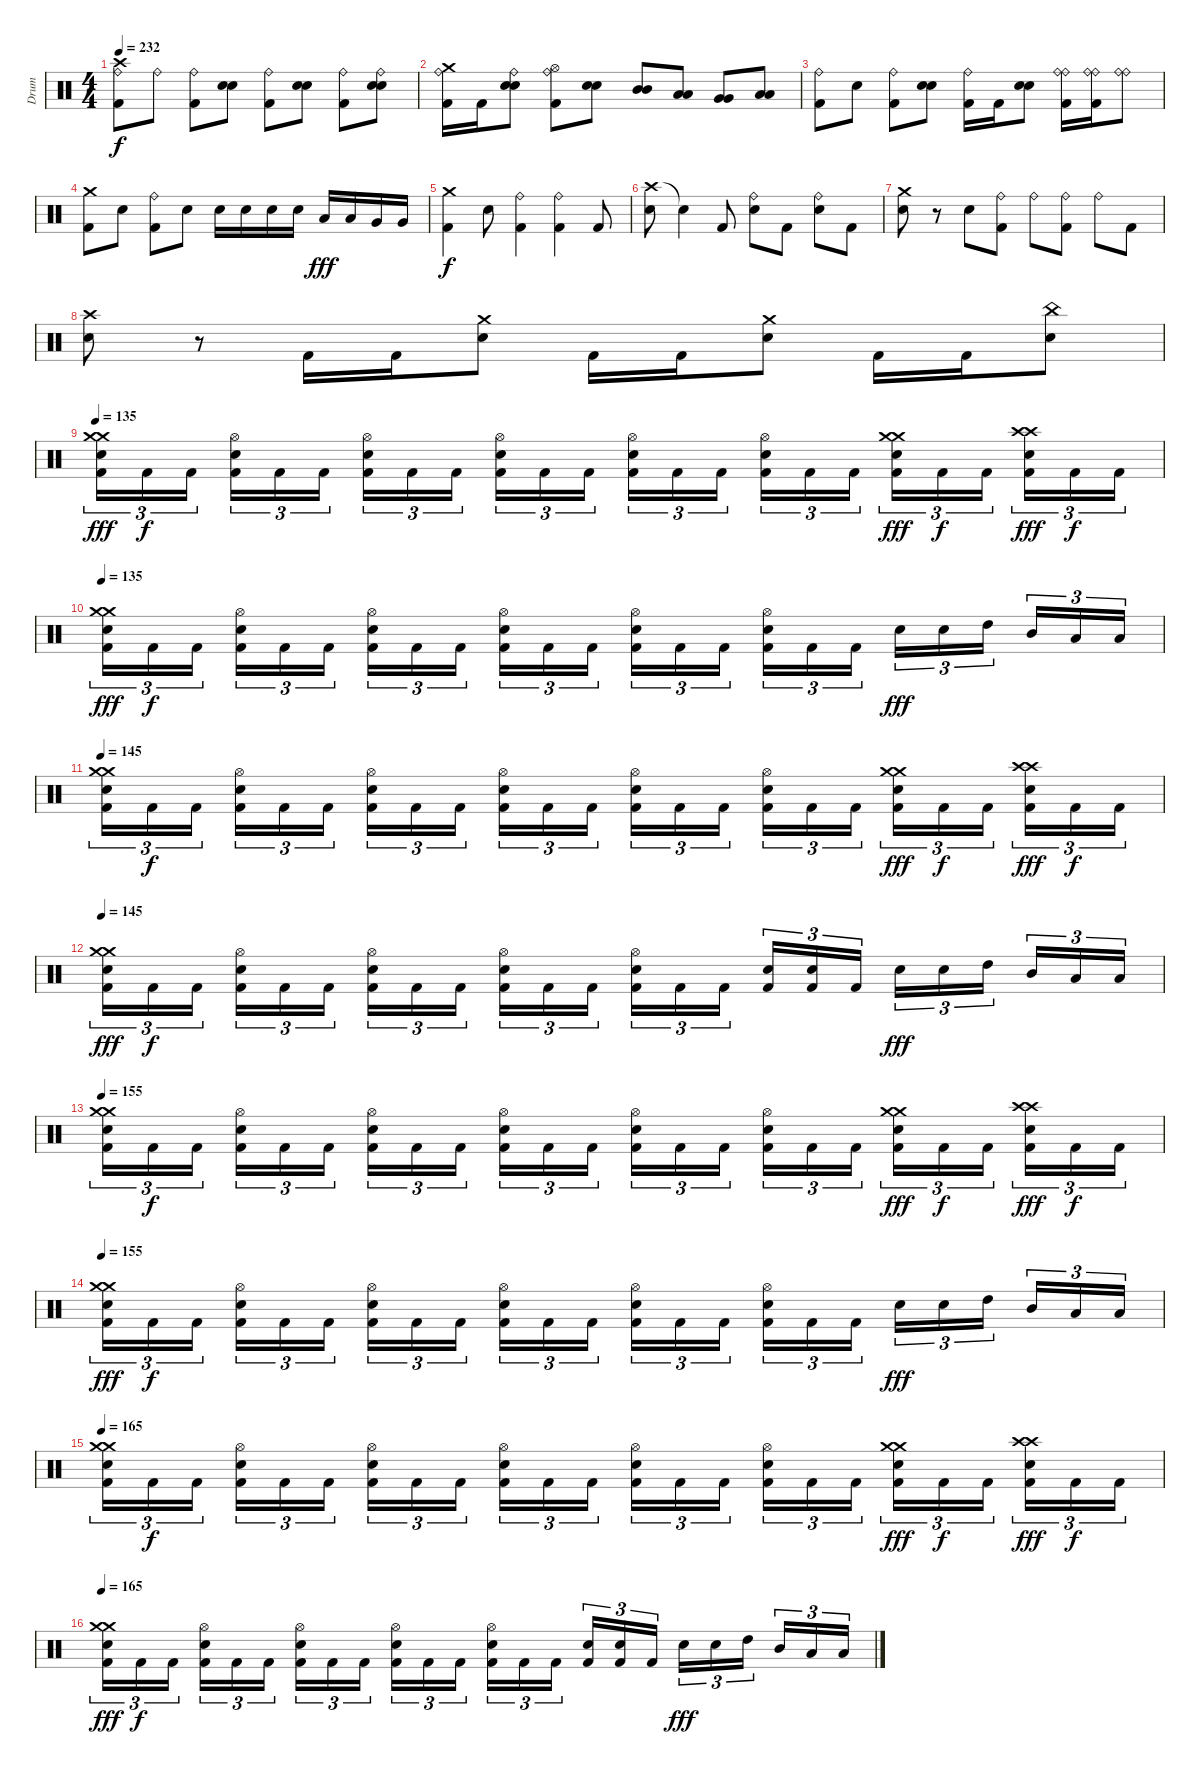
\track ("Drum" "Drum") {instrument percussion}
\staff {score}
\articulation defaults
\ts (4 4)
\tempo 232
\clef neutral
\ks c
("Ride (bell)" "Crash high (hit)" "Kick (hit) 2").8{dy f volume 13} "Ride (bell)".8 ("Ride (bell)" "Kick (hit) 2").8 ("Electric Snare (hit)" "Electric Snare (hit)").8 ("Ride (bell)" "Kick (hit) 2").8 ("Electric Snare (hit)" "Electric Snare (hit)").8 ("Ride (bell)" "Kick (hit) 2").8 ("Ride (bell)" "Electric Snare (hit)" "Electric Snare (hit)").8 |
("Ride (bell)" "Crash medium (hit)" "Kick (hit) 2").16 "Kick (hit) 2".16 ("Ride (bell)" "Electric Snare (hit)" "Electric Snare (hit)").8 ("Ride (bell)" "Hi-Hat (open)" "Kick (hit) 2").8 ("Electric Snare (hit)" "Electric Snare (hit)").8 ("Mid Tom (hit)" "Mid Tom (hit)").8 ("Low Tom (hit)" "Low Tom (hit)").8 ("Very Low Tom (hit)" "Very Low Tom (hit)").8 ("Low Floor Tom (hit)" "Low Floor Tom (hit)").8 |
("Ride (bell)" "Kick (hit) 2").8 "Electric Snare (hit)".8 ("Ride (bell)" "Kick (hit) 2").8 ("Electric Snare (hit)" "Electric Snare (hit)").8 ("Ride (bell)" "Kick (hit) 2").16 "Kick (hit) 2".16 ("Electric Snare (hit)" "Electric Snare (hit)").8 ("Ride (bell)" "Ride (bell)" "Kick (hit) 2").16 ("Ride (bell)" "Ride (bell)" "Kick (hit) 2").16 ("Ride (bell)" "Ride (bell)").8 |
("Crash medium (hit)" "Kick (hit) 2").8 "Electric Snare (hit)".8 ("Ride (bell)" "Kick (hit) 2").8 "Electric Snare (hit)".8 "Electric Snare (hit)".16 "Electric Snare (hit)".16 "Electric Snare (hit)".16 "Electric Snare (hit)".16 "Low Tom (hit)".16{dy fff} "Low Tom (hit)".16 "Very Low Tom (hit)".16 "Very Low Tom (hit)".16 |
("Crash medium (hit)" "Kick (hit) 2").4{dy f} "Electric Snare (hit)".8 ("Ride (bell)" "Kick (hit) 2").4 ("Ride (bell)" "Kick (hit) 2").4 "Kick (hit) 2".8 |
("Crash high (hit)" "Electric Snare (hit)").8 "Snare (hit)"{t}.4 "Kick (hit) 2".8 ("Ride (bell)" "Electric Snare (hit)").8 "Kick (hit) 2".8 ("Ride (bell)" "Electric Snare (hit)").8 "Kick (hit) 2".8 |
("Crash medium (hit)" "Electric Snare (hit)").8 r.8 "Electric Snare (hit)".8 ("Ride (bell)" "Kick (hit) 2").8 "Ride (bell)".8 ("Ride (bell)" "Kick (hit) 2").8 "Ride (bell)".8 "Kick (hit) 2".8 |
("Crash high (hit)" "Electric Snare (hit)").8 r.8 "Kick (hit) 2".16 "Kick (hit) 2".16 ("Crash medium (hit)" "Electric Snare (hit)").8 "Kick (hit) 2".16 "Kick (hit) 2".16 ("Crash medium (hit)" "Electric Snare (hit)").8 "Kick (hit) 2".16 "Kick (hit) 2".16 ("China (hit)" "Electric Snare (hit)").8 |
\tempo 135
("Crash medium (hit)" "Crash medium (hit)" "Electric Snare (hit)" "Kick (hit) 2").16{tu (3 2) dy fff} "Kick (hit) 2".16{tu (3 2) dy f} "Kick (hit) 2".16{tu (3 2)} ("Hi-Hat (open)" "Electric Snare (hit)" "Kick (hit) 2").16{tu (3 2)} "Kick (hit) 2".16{tu (3 2)} "Kick (hit) 2".16{tu (3 2)} ("Hi-Hat (open)" "Electric Snare (hit)" "Kick (hit) 2").16{tu (3 2)} "Kick (hit) 2".16{tu (3 2)} "Kick (hit) 2".16{tu (3 2)} ("Hi-Hat (open)" "Electric Snare (hit)" "Kick (hit) 2").16{tu (3 2)} "Kick (hit) 2".16{tu (3 2)} "Kick (hit) 2".16{tu (3 2)} ("Hi-Hat (open)" "Electric Snare (hit)" "Kick (hit) 2").16{tu (3 2)} "Kick (hit) 2".16{tu (3 2)} "Kick (hit) 2".16{tu (3 2)} ("Hi-Hat (open)" "Electric Snare (hit)" "Kick (hit) 2").16{tu (3 2)} "Kick (hit) 2".16{tu (3 2)} "Kick (hit) 2".16{tu (3 2)} ("Crash medium (hit)" "Crash medium (hit)" "Electric Snare (hit)" "Kick (hit) 2").16{tu (3 2) dy fff} "Kick (hit) 2".16{tu (3 2) dy f} "Kick (hit) 2".16{tu (3 2)} ("Crash high (hit)" "Crash high (hit)" "Electric Snare (hit)" "Kick (hit) 2").16{tu (3 2) dy fff} "Kick (hit) 2".16{tu (3 2) dy f} "Kick (hit) 2".16{tu (3 2)} |
\tempo 135
("Crash medium (hit)" "Crash medium (hit)" "Electric Snare (hit)" "Kick (hit) 2").16{tu (3 2) dy fff} "Kick (hit) 2".16{tu (3 2) dy f} "Kick (hit) 2".16{tu (3 2)} ("Hi-Hat (open)" "Electric Snare (hit)" "Kick (hit) 2").16{tu (3 2)} "Kick (hit) 2".16{tu (3 2)} "Kick (hit) 2".16{tu (3 2)} ("Hi-Hat (open)" "Electric Snare (hit)" "Kick (hit) 2").16{tu (3 2)} "Kick (hit) 2".16{tu (3 2)} "Kick (hit) 2".16{tu (3 2)} ("Hi-Hat (open)" "Electric Snare (hit)" "Kick (hit) 2").16{tu (3 2)} "Kick (hit) 2".16{tu (3 2)} "Kick (hit) 2".16{tu (3 2)} ("Hi-Hat (open)" "Electric Snare (hit)" "Kick (hit) 2").16{tu (3 2)} "Kick (hit) 2".16{tu (3 2)} "Kick (hit) 2".16{tu (3 2)} ("Hi-Hat (open)" "Electric Snare (hit)" "Kick (hit) 2").16{tu (3 2)} "Kick (hit) 2".16{tu (3 2)} "Kick (hit) 2".16{tu (3 2)} "Electric Snare (hit)".16{tu (3 2) dy fff} "Electric Snare (hit)".16{tu (3 2)} "High Tom (hit)".16{tu (3 2)} "Mid Tom (hit)".16{tu (3 2)} "Low Tom (hit)".16{tu (3 2)} "Low Tom (hit)".16{tu (3 2)} |
\tempo 145
("Crash medium (hit)" "Crash medium (hit)" "Electric Snare (hit)" "Kick (hit) 2").16{tu (3 2)} "Kick (hit) 2".16{tu (3 2) dy f} "Kick (hit) 2".16{tu (3 2)} ("Hi-Hat (open)" "Electric Snare (hit)" "Kick (hit) 2").16{tu (3 2)} "Kick (hit) 2".16{tu (3 2)} "Kick (hit) 2".16{tu (3 2)} ("Hi-Hat (open)" "Electric Snare (hit)" "Kick (hit) 2").16{tu (3 2)} "Kick (hit) 2".16{tu (3 2)} "Kick (hit) 2".16{tu (3 2)} ("Hi-Hat (open)" "Electric Snare (hit)" "Kick (hit) 2").16{tu (3 2)} "Kick (hit) 2".16{tu (3 2)} "Kick (hit) 2".16{tu (3 2)} ("Hi-Hat (open)" "Electric Snare (hit)" "Kick (hit) 2").16{tu (3 2)} "Kick (hit) 2".16{tu (3 2)} "Kick (hit) 2".16{tu (3 2)} ("Hi-Hat (open)" "Electric Snare (hit)" "Kick (hit) 2").16{tu (3 2)} "Kick (hit) 2".16{tu (3 2)} "Kick (hit) 2".16{tu (3 2)} ("Crash medium (hit)" "Crash medium (hit)" "Electric Snare (hit)" "Kick (hit) 2").16{tu (3 2) dy fff} "Kick (hit) 2".16{tu (3 2) dy f} "Kick (hit) 2".16{tu (3 2)} ("Crash high (hit)" "Crash high (hit)" "Electric Snare (hit)" "Kick (hit) 2").16{tu (3 2) dy fff} "Kick (hit) 2".16{tu (3 2) dy f} "Kick (hit) 2".16{tu (3 2)} |
\tempo 145
("Crash medium (hit)" "Crash medium (hit)" "Electric Snare (hit)" "Kick (hit) 2").16{tu (3 2) dy fff} "Kick (hit) 2".16{tu (3 2) dy f} "Kick (hit) 2".16{tu (3 2)} ("Hi-Hat (open)" "Electric Snare (hit)" "Kick (hit) 2").16{tu (3 2)} "Kick (hit) 2".16{tu (3 2)} "Kick (hit) 2".16{tu (3 2)} ("Hi-Hat (open)" "Electric Snare (hit)" "Kick (hit) 2").16{tu (3 2)} "Kick (hit) 2".16{tu (3 2)} "Kick (hit) 2".16{tu (3 2)} ("Hi-Hat (open)" "Electric Snare (hit)" "Kick (hit) 2").16{tu (3 2)} "Kick (hit) 2".16{tu (3 2)} "Kick (hit) 2".16{tu (3 2)} ("Hi-Hat (open)" "Electric Snare (hit)" "Kick (hit) 2").16{tu (3 2)} "Kick (hit) 2".16{tu (3 2)} "Kick (hit) 2".16{tu (3 2)} ("Electric Snare (hit)" "Kick (hit) 2").16{tu (3 2)} ("Electric Snare (hit)" "Kick (hit) 2").16{tu (3 2)} "Kick (hit) 2".16{tu (3 2)} "Electric Snare (hit)".16{tu (3 2) dy fff} "Electric Snare (hit)".16{tu (3 2)} "High Tom (hit)".16{tu (3 2)} "Mid Tom (hit)".16{tu (3 2)} "Low Tom (hit)".16{tu (3 2)} "Low Tom (hit)".16{tu (3 2)} |
\tempo 155
("Crash medium (hit)" "Crash medium (hit)" "Electric Snare (hit)" "Kick (hit) 2").16{tu (3 2)} "Kick (hit) 2".16{tu (3 2) dy f} "Kick (hit) 2".16{tu (3 2)} ("Hi-Hat (open)" "Electric Snare (hit)" "Kick (hit) 2").16{tu (3 2)} "Kick (hit) 2".16{tu (3 2)} "Kick (hit) 2".16{tu (3 2)} ("Hi-Hat (open)" "Electric Snare (hit)" "Kick (hit) 2").16{tu (3 2)} "Kick (hit) 2".16{tu (3 2)} "Kick (hit) 2".16{tu (3 2)} ("Hi-Hat (open)" "Electric Snare (hit)" "Kick (hit) 2").16{tu (3 2)} "Kick (hit) 2".16{tu (3 2)} "Kick (hit) 2".16{tu (3 2)} ("Hi-Hat (open)" "Electric Snare (hit)" "Kick (hit) 2").16{tu (3 2)} "Kick (hit) 2".16{tu (3 2)} "Kick (hit) 2".16{tu (3 2)} ("Hi-Hat (open)" "Electric Snare (hit)" "Kick (hit) 2").16{tu (3 2)} "Kick (hit) 2".16{tu (3 2)} "Kick (hit) 2".16{tu (3 2)} ("Crash medium (hit)" "Crash medium (hit)" "Electric Snare (hit)" "Kick (hit) 2").16{tu (3 2) dy fff} "Kick (hit) 2".16{tu (3 2) dy f} "Kick (hit) 2".16{tu (3 2)} ("Crash high (hit)" "Crash high (hit)" "Electric Snare (hit)" "Kick (hit) 2").16{tu (3 2) dy fff} "Kick (hit) 2".16{tu (3 2) dy f} "Kick (hit) 2".16{tu (3 2)} |
\tempo 145
\tempo 155
("Crash medium (hit)" "Crash medium (hit)" "Electric Snare (hit)" "Kick (hit) 2").16{tu (3 2) dy fff} "Kick (hit) 2".16{tu (3 2) dy f} "Kick (hit) 2".16{tu (3 2)} ("Hi-Hat (open)" "Electric Snare (hit)" "Kick (hit) 2").16{tu (3 2)} "Kick (hit) 2".16{tu (3 2)} "Kick (hit) 2".16{tu (3 2)} ("Hi-Hat (open)" "Electric Snare (hit)" "Kick (hit) 2").16{tu (3 2)} "Kick (hit) 2".16{tu (3 2)} "Kick (hit) 2".16{tu (3 2)} ("Hi-Hat (open)" "Electric Snare (hit)" "Kick (hit) 2").16{tu (3 2)} "Kick (hit) 2".16{tu (3 2)} "Kick (hit) 2".16{tu (3 2)} ("Hi-Hat (open)" "Electric Snare (hit)" "Kick (hit) 2").16{tu (3 2)} "Kick (hit) 2".16{tu (3 2)} "Kick (hit) 2".16{tu (3 2)} ("Hi-Hat (open)" "Electric Snare (hit)" "Kick (hit) 2").16{tu (3 2)} "Kick (hit) 2".16{tu (3 2)} "Kick (hit) 2".16{tu (3 2)} "Electric Snare (hit)".16{tu (3 2) dy fff} "Electric Snare (hit)".16{tu (3 2)} "High Tom (hit)".16{tu (3 2)} "Mid Tom (hit)".16{tu (3 2)} "Low Tom (hit)".16{tu (3 2)} "Low Tom (hit)".16{tu (3 2)} |
\tempo 165
("Crash medium (hit)" "Crash medium (hit)" "Electric Snare (hit)" "Kick (hit) 2").16{tu (3 2)} "Kick (hit) 2".16{tu (3 2) dy f} "Kick (hit) 2".16{tu (3 2)} ("Hi-Hat (open)" "Electric Snare (hit)" "Kick (hit) 2").16{tu (3 2)} "Kick (hit) 2".16{tu (3 2)} "Kick (hit) 2".16{tu (3 2)} ("Hi-Hat (open)" "Electric Snare (hit)" "Kick (hit) 2").16{tu (3 2)} "Kick (hit) 2".16{tu (3 2)} "Kick (hit) 2".16{tu (3 2)} ("Hi-Hat (open)" "Electric Snare (hit)" "Kick (hit) 2").16{tu (3 2)} "Kick (hit) 2".16{tu (3 2)} "Kick (hit) 2".16{tu (3 2)} ("Hi-Hat (open)" "Electric Snare (hit)" "Kick (hit) 2").16{tu (3 2)} "Kick (hit) 2".16{tu (3 2)} "Kick (hit) 2".16{tu (3 2)} ("Hi-Hat (open)" "Electric Snare (hit)" "Kick (hit) 2").16{tu (3 2)} "Kick (hit) 2".16{tu (3 2)} "Kick (hit) 2".16{tu (3 2)} ("Crash medium (hit)" "Crash medium (hit)" "Electric Snare (hit)" "Kick (hit) 2").16{tu (3 2) dy fff} "Kick (hit) 2".16{tu (3 2) dy f} "Kick (hit) 2".16{tu (3 2)} ("Crash high (hit)" "Crash high (hit)" "Electric Snare (hit)" "Kick (hit) 2").16{tu (3 2) dy fff} "Kick (hit) 2".16{tu (3 2) dy f} "Kick (hit) 2".16{tu (3 2)} |
\tempo 165
("Crash medium (hit)" "Crash medium (hit)" "Electric Snare (hit)" "Kick (hit) 2").16{tu (3 2) dy fff} "Kick (hit) 2".16{tu (3 2) dy f} "Kick (hit) 2".16{tu (3 2)} ("Hi-Hat (open)" "Electric Snare (hit)" "Kick (hit) 2").16{tu (3 2)} "Kick (hit) 2".16{tu (3 2)} "Kick (hit) 2".16{tu (3 2)} ("Hi-Hat (open)" "Electric Snare (hit)" "Kick (hit) 2").16{tu (3 2)} "Kick (hit) 2".16{tu (3 2)} "Kick (hit) 2".16{tu (3 2)} ("Hi-Hat (open)" "Electric Snare (hit)" "Kick (hit) 2").16{tu (3 2)} "Kick (hit) 2".16{tu (3 2)} "Kick (hit) 2".16{tu (3 2)} ("Hi-Hat (open)" "Electric Snare (hit)" "Kick (hit) 2").16{tu (3 2)} "Kick (hit) 2".16{tu (3 2)} "Kick (hit) 2".16{tu (3 2)} ("Electric Snare (hit)" "Kick (hit) 2").16{tu (3 2)} ("Electric Snare (hit)" "Kick (hit) 2").16{tu (3 2)} "Kick (hit) 2".16{tu (3 2)} "Electric Snare (hit)".16{tu (3 2) dy fff} "Electric Snare (hit)".16{tu (3 2)} "High Tom (hit)".16{tu (3 2)} "Mid Tom (hit)".16{tu (3 2)} "Low Tom (hit)".16{tu (3 2)} "Low Tom (hit)".16{tu (3 2)}
